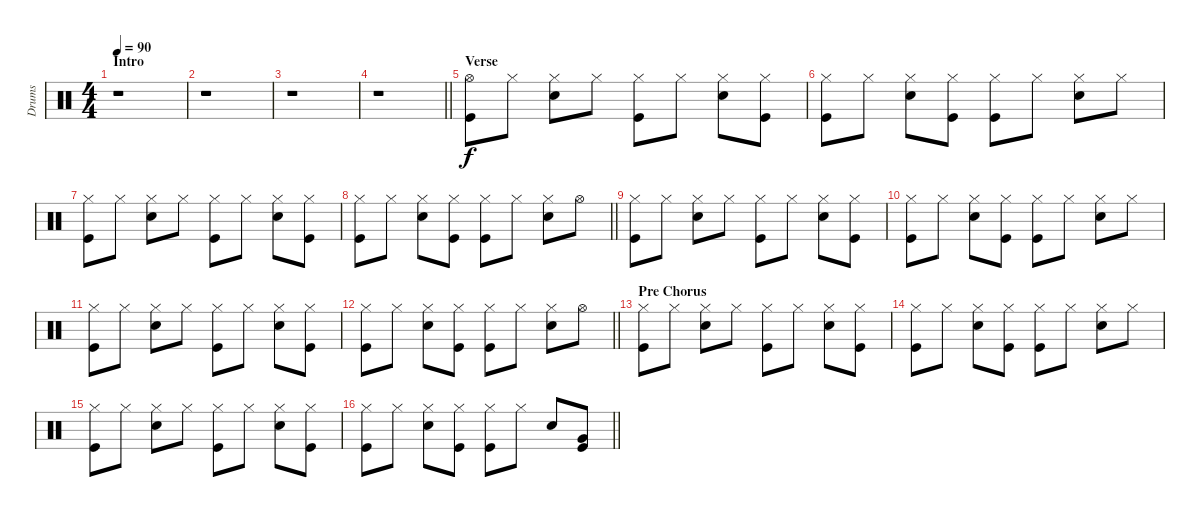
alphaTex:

\track ("Drums" "Drums") {instrument percussion}
\staff {score}
\articulation defaults
\ts (4 4)
\section ("" "Intro")
\tempo 90
\clef neutral
\ks c
r.1{dy f} |
r.1 |
r.1 |
\barLineRight lightlight
r.1 |
\section ("" "Verse")
("Hi-Hat (open)" "Kick (hit)").8 "Hi-Hat (closed)".8 ("Hi-Hat (closed)" "Snare (hit) 2").8 "Hi-Hat (closed)".8 ("Hi-Hat (closed)" "Kick (hit)").8 "Hi-Hat (closed)".8 ("Hi-Hat (closed)" "Snare (hit) 2").8 ("Hi-Hat (closed)" "Kick (hit)").8 |
("Hi-Hat (closed)" "Kick (hit)").8 "Hi-Hat (closed)".8 ("Hi-Hat (closed)" "Snare (hit) 2").8 ("Hi-Hat (closed)" "Kick (hit)").8 ("Hi-Hat (closed)" "Kick (hit)").8 "Hi-Hat (closed)".8 ("Hi-Hat (closed)" "Snare (hit) 2").8 "Hi-Hat (closed)".8 |
("Hi-Hat (closed)" "Kick (hit)").8 "Hi-Hat (closed)".8 ("Hi-Hat (closed)" "Snare (hit) 2").8 "Hi-Hat (closed)".8 ("Hi-Hat (closed)" "Kick (hit)").8 "Hi-Hat (closed)".8 ("Hi-Hat (closed)" "Snare (hit) 2").8 ("Hi-Hat (closed)" "Kick (hit)").8 |
\barLineRight lightlight
("Hi-Hat (closed)" "Kick (hit)").8 "Hi-Hat (closed)".8 ("Hi-Hat (closed)" "Snare (hit) 2").8 ("Hi-Hat (closed)" "Kick (hit)").8 ("Hi-Hat (closed)" "Kick (hit)").8 "Hi-Hat (closed)".8 ("Hi-Hat (closed)" "Snare (hit) 2").8 "Hi-Hat (open)".8 |
("Hi-Hat (closed)" "Kick (hit)").8 "Hi-Hat (closed)".8 ("Hi-Hat (closed)" "Snare (hit) 2").8 "Hi-Hat (closed)".8 ("Hi-Hat (closed)" "Kick (hit)").8 "Hi-Hat (closed)".8 ("Hi-Hat (closed)" "Snare (hit) 2").8 ("Hi-Hat (closed)" "Kick (hit)").8 |
("Hi-Hat (closed)" "Kick (hit)").8 "Hi-Hat (closed)".8 ("Hi-Hat (closed)" "Snare (hit) 2").8 ("Hi-Hat (closed)" "Kick (hit)").8 ("Hi-Hat (closed)" "Kick (hit)").8 "Hi-Hat (closed)".8 ("Hi-Hat (closed)" "Snare (hit) 2").8 "Hi-Hat (closed)".8 |
("Hi-Hat (closed)" "Kick (hit)").8 "Hi-Hat (closed)".8 ("Hi-Hat (closed)" "Snare (hit) 2").8 "Hi-Hat (closed)".8 ("Hi-Hat (closed)" "Kick (hit)").8 "Hi-Hat (closed)".8 ("Hi-Hat (closed)" "Snare (hit) 2").8 ("Hi-Hat (closed)" "Kick (hit)").8 |
\barLineRight lightlight
("Hi-Hat (closed)" "Kick (hit)").8 "Hi-Hat (closed)".8 ("Hi-Hat (closed)" "Snare (hit) 2").8 ("Hi-Hat (closed)" "Kick (hit)").8 ("Hi-Hat (closed)" "Kick (hit)").8 "Hi-Hat (closed)".8 ("Hi-Hat (closed)" "Snare (hit) 2").8 "Hi-Hat (open)".8 |
\section ("" "Pre Chorus")
("Hi-Hat (closed)" "Kick (hit)").8 "Hi-Hat (closed)".8 ("Hi-Hat (closed)" "Snare (hit) 2").8 "Hi-Hat (closed)".8 ("Hi-Hat (closed)" "Kick (hit)").8 "Hi-Hat (closed)".8 ("Hi-Hat (closed)" "Snare (hit) 2").8 ("Hi-Hat (closed)" "Kick (hit)").8 |
("Hi-Hat (closed)" "Kick (hit)").8 "Hi-Hat (closed)".8 ("Hi-Hat (closed)" "Snare (hit) 2").8 ("Hi-Hat (closed)" "Kick (hit)").8 ("Hi-Hat (closed)" "Kick (hit)").8 "Hi-Hat (closed)".8 ("Hi-Hat (closed)" "Snare (hit) 2").8 "Hi-Hat (closed)".8 |
("Hi-Hat (closed)" "Kick (hit)").8 "Hi-Hat (closed)".8 ("Hi-Hat (closed)" "Snare (hit) 2").8 "Hi-Hat (closed)".8 ("Hi-Hat (closed)" "Kick (hit)").8 "Hi-Hat (closed)".8 ("Hi-Hat (closed)" "Snare (hit) 2").8 ("Hi-Hat (closed)" "Kick (hit)").8 |
\barLineRight lightlight
("Hi-Hat (closed)" "Kick (hit)").8 "Hi-Hat (closed)".8 ("Hi-Hat (closed)" "Snare (hit) 2").8 ("Hi-Hat (closed)" "Kick (hit)").8 ("Hi-Hat (closed)" "Kick (hit)").8 "Hi-Hat (closed)".8 "Snare (hit) 2".8 ("Very Low Tom (hit)" "Kick (hit)").8
